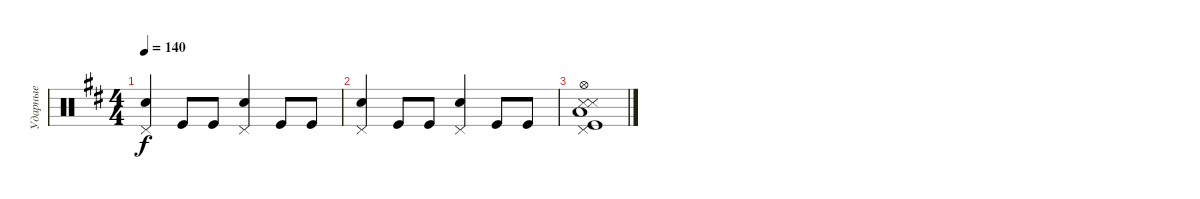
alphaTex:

\track ("Ударные" "Ударные") {instrument percussion}
\staff {score}
\articulation defaults
\ts (4 4)
\tempo 140
\clef neutral
\ks bminor
("Pedal Hi-Hat (hit)" "Snare (hit) 2").4{dy f} "Kick (hit)".8 "Kick (hit)".8 ("Pedal Hi-Hat (hit)" "Snare (hit) 2").4 "Kick (hit)".8 "Kick (hit)".8 |
("Pedal Hi-Hat (hit)" "Snare (hit) 2").4 "Kick (hit)".8 "Kick (hit)".8 ("Pedal Hi-Hat (hit)" "Snare (hit) 2").4 "Kick (hit)".8 "Kick (hit)".8 |
("Snare (side stick) 3" "Pedal Hi-Hat (hit)" "Snare (side stick) 3" "Kick (hit)" "Hi-Hat (open)" "Low Floor Tom (hit)").1
